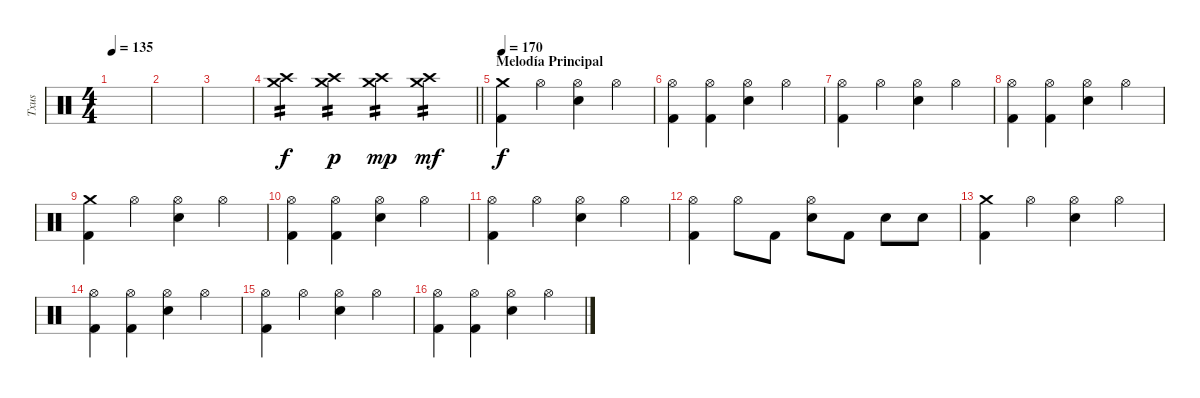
\track ("Txus" "Txus") {instrument percussion}
\staff {score}
\articulation defaults
\ts (4 4)
\tempo 135
\clef neutral
\ks c
|
|
|
\barLineRight lightlight
("Crash medium (hit)" "Crash high (hit)").4{tp 2} ("Crash medium (hit)" "Crash high (hit)").4{tp 2 dy p} ("Crash medium (hit)" "Crash high (hit)").4{tp 2 dy mp} ("Crash medium (hit)" "Crash high (hit)").4{tp 2 dy mf} |
\section ("" "Melodía Principal")
\tempo 170
("Crash medium (hit)" "Kick (hit) 2").4{dy f} "Hi-Hat (open)".4 ("Hi-Hat (open)" "Snare (hit) 2").4 "Hi-Hat (open)".4 |
("Hi-Hat (open)" "Kick (hit) 2").4 ("Hi-Hat (open)" "Kick (hit) 2").4 ("Hi-Hat (open)" "Snare (hit) 2").4 "Hi-Hat (open)".4 |
("Hi-Hat (open)" "Kick (hit) 2").4 "Hi-Hat (open)".4 ("Hi-Hat (open)" "Snare (hit) 2").4 "Hi-Hat (open)".4 |
("Hi-Hat (open)" "Kick (hit) 2").4 ("Hi-Hat (open)" "Kick (hit) 2").4 ("Hi-Hat (open)" "Snare (hit) 2").4 "Hi-Hat (open)".4 |
("Crash medium (hit)" "Kick (hit) 2").4 "Hi-Hat (open)".4 ("Hi-Hat (open)" "Snare (hit) 2").4 "Hi-Hat (open)".4 |
("Hi-Hat (open)" "Kick (hit) 2").4 ("Hi-Hat (open)" "Kick (hit) 2").4 ("Hi-Hat (open)" "Snare (hit) 2").4 "Hi-Hat (open)".4 |
("Hi-Hat (open)" "Kick (hit) 2").4 "Hi-Hat (open)".4 ("Hi-Hat (open)" "Snare (hit) 2").4 "Hi-Hat (open)".4 |
("Hi-Hat (open)" "Kick (hit) 2").4 "Hi-Hat (open)".8 "Kick (hit) 2".8 ("Hi-Hat (open)" "Snare (hit) 2").8 "Kick (hit) 2".8 "Snare (hit) 2".8 "Snare (hit) 2".8 |
("Crash medium (hit)" "Kick (hit) 2").4 "Hi-Hat (open)".4 ("Hi-Hat (open)" "Snare (hit) 2").4 "Hi-Hat (open)".4 |
("Hi-Hat (open)" "Kick (hit) 2").4 ("Hi-Hat (open)" "Kick (hit) 2").4 ("Hi-Hat (open)" "Snare (hit) 2").4 "Hi-Hat (open)".4 |
("Hi-Hat (open)" "Kick (hit) 2").4 "Hi-Hat (open)".4 ("Hi-Hat (open)" "Snare (hit) 2").4 "Hi-Hat (open)".4 |
("Hi-Hat (open)" "Kick (hit) 2").4 ("Hi-Hat (open)" "Kick (hit) 2").4 ("Hi-Hat (open)" "Snare (hit) 2").4 "Hi-Hat (open)".4
